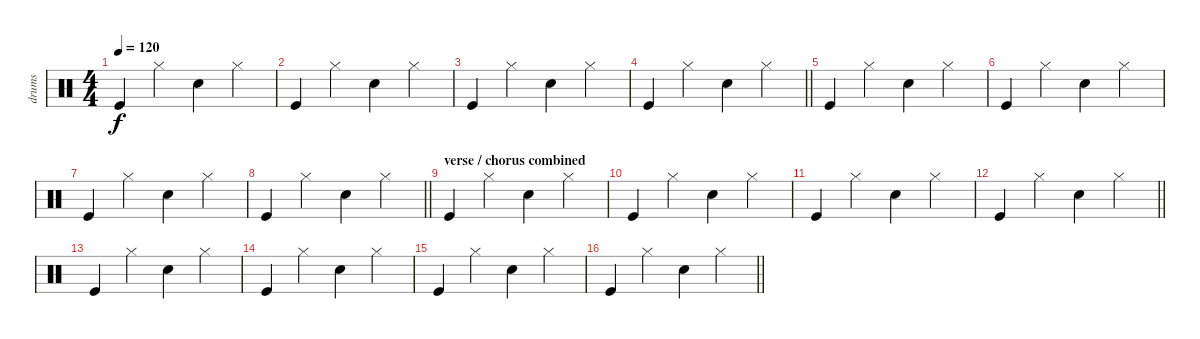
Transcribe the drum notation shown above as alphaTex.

\track ("drums" "drums") {instrument percussion}
\staff {score}
\articulation defaults
\ts (4 4)
\tempo 120
\clef neutral
\ks c "Kick (hit)".4{dy f} "Hi-Hat (closed)".4 "Snare (hit) 2".4 "Hi-Hat (closed)".4
|
"Kick (hit)".4 "Hi-Hat (closed)".4 "Snare (hit) 2".4 "Hi-Hat (closed)".4 |
"Kick (hit)".4 "Hi-Hat (closed)".4 "Snare (hit) 2".4 "Hi-Hat (closed)".4 |
\barLineRight lightlight "Kick (hit)".4 "Hi-Hat (closed)".4 "Snare (hit) 2".4 "Hi-Hat (closed)".4
|
"Kick (hit)".4 "Hi-Hat (closed)".4 "Snare (hit) 2".4 "Hi-Hat (closed)".4 |
"Kick (hit)".4 "Hi-Hat (closed)".4 "Snare (hit) 2".4 "Hi-Hat (closed)".4 |
"Kick (hit)".4 "Hi-Hat (closed)".4 "Snare (hit) 2".4 "Hi-Hat (closed)".4 |
\barLineRight lightlight "Kick (hit)".4 "Hi-Hat (closed)".4 "Snare (hit) 2".4 "Hi-Hat (closed)".4
|
\section ("" "verse / chorus combined")
"Kick (hit)".4 "Hi-Hat (closed)".4 "Snare (hit) 2".4 "Hi-Hat (closed)".4 |
"Kick (hit)".4 "Hi-Hat (closed)".4 "Snare (hit) 2".4 "Hi-Hat (closed)".4 |
"Kick (hit)".4 "Hi-Hat (closed)".4 "Snare (hit) 2".4 "Hi-Hat (closed)".4 |
\barLineRight lightlight "Kick (hit)".4 "Hi-Hat (closed)".4 "Snare (hit) 2".4 "Hi-Hat (closed)".4
|
"Kick (hit)".4 "Hi-Hat (closed)".4 "Snare (hit) 2".4 "Hi-Hat (closed)".4 |
"Kick (hit)".4 "Hi-Hat (closed)".4 "Snare (hit) 2".4 "Hi-Hat (closed)".4 |
"Kick (hit)".4 "Hi-Hat (closed)".4 "Snare (hit) 2".4 "Hi-Hat (closed)".4 |
\barLineRight lightlight "Kick (hit)".4 "Hi-Hat (closed)".4 "Snare (hit) 2".4 "Hi-Hat (closed)".4
